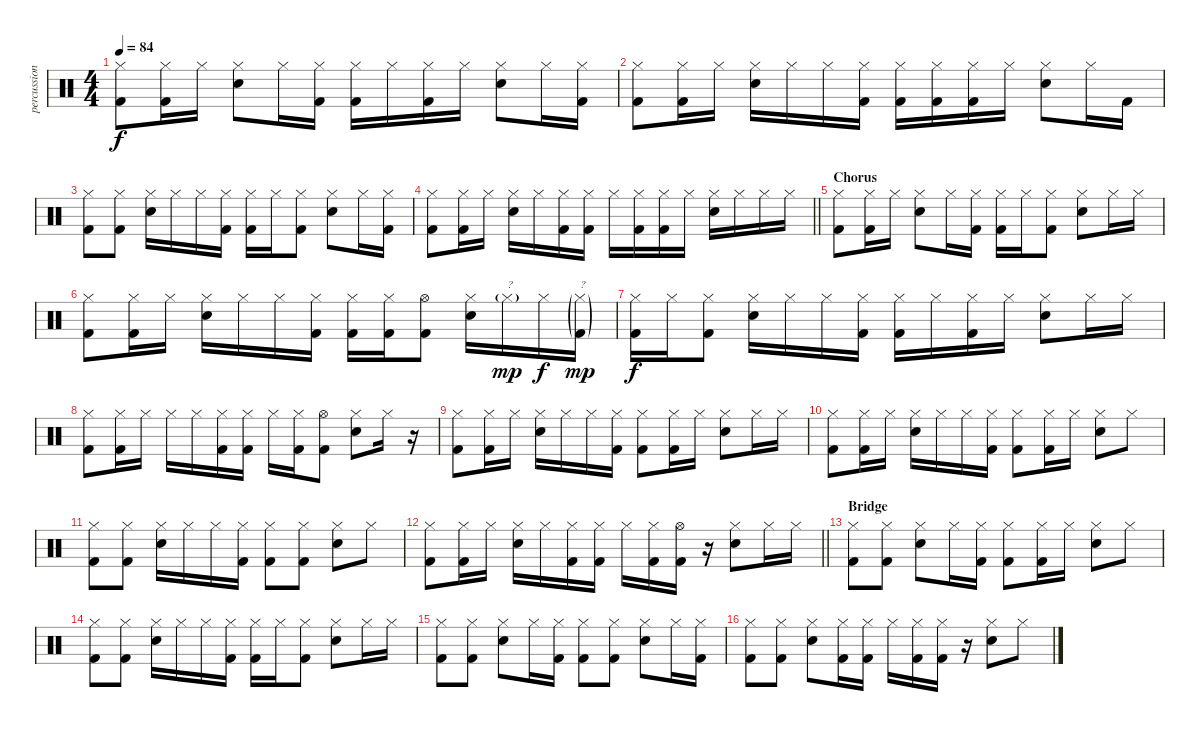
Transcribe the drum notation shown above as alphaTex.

\track ("percussion" "percussion") {instrument percussion}
\staff {score}
\articulation defaults
\ts (4 4)
\tempo 84
\clef neutral
\ks c
("Hi-Hat (closed)" "Kick (hit) 2").8{dy f} ("Hi-Hat (closed)" "Kick (hit) 2").16 "Hi-Hat (closed)".16 ("Snare (hit) 2" "Hi-Hat (closed)").8 "Hi-Hat (closed)".16 ("Hi-Hat (closed)" "Kick (hit) 2").16 ("Hi-Hat (closed)" "Kick (hit) 2").16 "Hi-Hat (closed)".16 ("Hi-Hat (closed)" "Kick (hit) 2").16 "Hi-Hat (closed)".16 ("Snare (hit) 2" "Hi-Hat (closed)").8 "Hi-Hat (closed)".16 ("Hi-Hat (closed)" "Kick (hit) 2").16 |
("Hi-Hat (closed)" "Kick (hit) 2").8 ("Hi-Hat (closed)" "Kick (hit) 2").16 "Hi-Hat (closed)".16 ("Snare (hit) 2" "Hi-Hat (closed)").16 "Hi-Hat (closed)".16 "Hi-Hat (closed)".16 ("Hi-Hat (closed)" "Kick (hit) 2").16 ("Hi-Hat (closed)" "Kick (hit) 2").16 ("Hi-Hat (closed)" "Kick (hit) 2").16 ("Hi-Hat (closed)" "Kick (hit) 2").16 "Hi-Hat (closed)".16 ("Snare (hit) 2" "Hi-Hat (closed)").8 "Hi-Hat (closed)".16 "Kick (hit) 2".16 |
("Hi-Hat (closed)" "Kick (hit) 2").8 ("Hi-Hat (closed)" "Kick (hit) 2").8 ("Snare (hit) 2" "Hi-Hat (closed)").16 "Hi-Hat (closed)".16 "Hi-Hat (closed)".16 ("Hi-Hat (closed)" "Kick (hit) 2").16 ("Hi-Hat (closed)" "Kick (hit) 2").16 "Hi-Hat (closed)".16 ("Hi-Hat (closed)" "Kick (hit) 2").8 ("Snare (hit) 2" "Hi-Hat (closed)").8 "Hi-Hat (closed)".16 ("Hi-Hat (closed)" "Kick (hit) 2").16 |
\barLineRight lightlight
("Hi-Hat (closed)" "Kick (hit) 2").8 ("Hi-Hat (closed)" "Kick (hit) 2").16 "Hi-Hat (closed)".16 ("Snare (hit) 2" "Hi-Hat (closed)").16 "Hi-Hat (closed)".16 ("Hi-Hat (closed)" "Kick (hit) 2").16 ("Hi-Hat (closed)" "Kick (hit) 2").16 "Hi-Hat (closed)".16 ("Hi-Hat (closed)" "Kick (hit) 2").16 ("Hi-Hat (closed)" "Kick (hit) 2").16 "Hi-Hat (closed)".16 ("Snare (hit) 2" "Hi-Hat (closed)").16 "Hi-Hat (closed)".16 "Hi-Hat (closed)".16 "Hi-Hat (closed)".16 |
\section ("" "Chorus")
("Hi-Hat (closed)" "Kick (hit) 2").8 ("Hi-Hat (closed)" "Kick (hit) 2").16 "Hi-Hat (closed)".16 ("Snare (hit) 2" "Hi-Hat (closed)").8 "Hi-Hat (closed)".16 ("Hi-Hat (closed)" "Kick (hit) 2").16 ("Hi-Hat (closed)" "Kick (hit) 2").16 "Hi-Hat (closed)".16 ("Hi-Hat (closed)" "Kick (hit) 2").8 ("Snare (hit) 2" "Hi-Hat (closed)").8 "Hi-Hat (closed)".16 "Hi-Hat (closed)".16 |
("Hi-Hat (closed)" "Kick (hit) 2").8 ("Hi-Hat (closed)" "Kick (hit) 2").16 "Hi-Hat (closed)".16 ("Snare (hit) 2" "Hi-Hat (closed)").16 "Hi-Hat (closed)".16 "Hi-Hat (closed)".16 ("Hi-Hat (closed)" "Kick (hit) 2").16 ("Hi-Hat (closed)" "Kick (hit) 2").16 ("Hi-Hat (closed)" "Kick (hit) 2").16 ("Hi-Hat (open)" "Kick (hit) 2").8 ("Snare (hit) 2" "Hi-Hat (closed)").16 "Hi-Hat (closed)"{g}.16{txt "?" dy mp} "Hi-Hat (closed)".16{dy f} ("Hi-Hat (closed)"{g} "Kick (hit) 2"{g}).16{txt "?" dy mp} |
("Hi-Hat (closed)" "Kick (hit) 2").16{dy f} "Hi-Hat (closed)".16 ("Hi-Hat (closed)" "Kick (hit) 2").8 ("Snare (hit) 2" "Hi-Hat (closed)").16 "Hi-Hat (closed)".16 "Hi-Hat (closed)".16 ("Hi-Hat (closed)" "Kick (hit) 2").16 ("Hi-Hat (closed)" "Kick (hit) 2").16 "Hi-Hat (closed)".16 ("Hi-Hat (closed)" "Kick (hit) 2").16 "Hi-Hat (closed)".16 ("Snare (hit) 2" "Hi-Hat (closed)").8 "Hi-Hat (closed)".16 "Hi-Hat (closed)".16 |
("Hi-Hat (closed)" "Kick (hit) 2").8 ("Hi-Hat (closed)" "Kick (hit) 2").16 "Hi-Hat (closed)".16 "Hi-Hat (closed)".16 "Hi-Hat (closed)".16 ("Hi-Hat (closed)" "Kick (hit) 2").16 ("Hi-Hat (closed)" "Kick (hit) 2").16 "Hi-Hat (closed)".16 ("Hi-Hat (closed)" "Kick (hit) 2").16 ("Hi-Hat (open)" "Kick (hit) 2").8 ("Snare (hit) 2" "Hi-Hat (closed)").8 "Hi-Hat (closed)".16 r.16 |
("Hi-Hat (closed)" "Kick (hit) 2").8 ("Hi-Hat (closed)" "Kick (hit) 2").16 "Hi-Hat (closed)".16 ("Snare (hit) 2" "Hi-Hat (closed)").16 "Hi-Hat (closed)".16 "Hi-Hat (closed)".16 ("Hi-Hat (closed)" "Kick (hit) 2").16 ("Hi-Hat (closed)" "Kick (hit) 2").8 ("Hi-Hat (closed)" "Kick (hit) 2").16 "Hi-Hat (closed)".16 ("Snare (hit) 2" "Hi-Hat (closed)").8 "Hi-Hat (closed)".16 "Hi-Hat (closed)".16 |
("Hi-Hat (closed)" "Kick (hit) 2").8 ("Hi-Hat (closed)" "Kick (hit) 2").16 "Hi-Hat (closed)".16 ("Snare (hit) 2" "Hi-Hat (closed)").16 "Hi-Hat (closed)".16 "Hi-Hat (closed)".16 ("Hi-Hat (closed)" "Kick (hit) 2").16 ("Hi-Hat (closed)" "Kick (hit) 2").8 ("Hi-Hat (closed)" "Kick (hit) 2").16 "Hi-Hat (closed)".16 ("Snare (hit) 2" "Hi-Hat (closed)").8 "Hi-Hat (closed)".8 |
("Hi-Hat (closed)" "Kick (hit) 2").8 ("Hi-Hat (closed)" "Kick (hit) 2").8 ("Snare (hit) 2" "Hi-Hat (closed)").16 "Hi-Hat (closed)".16 "Hi-Hat (closed)".16 ("Hi-Hat (closed)" "Kick (hit) 2").16 ("Hi-Hat (closed)" "Kick (hit) 2").8 ("Hi-Hat (closed)" "Kick (hit) 2").8 ("Snare (hit) 2" "Hi-Hat (closed)").8 "Hi-Hat (closed)".8 |
\barLineRight lightlight
("Hi-Hat (closed)" "Kick (hit) 2").8 ("Hi-Hat (closed)" "Kick (hit) 2").16 "Hi-Hat (closed)".16 ("Snare (hit) 2" "Hi-Hat (closed)").16 "Hi-Hat (closed)".16 ("Hi-Hat (closed)" "Kick (hit) 2").16 ("Hi-Hat (closed)" "Kick (hit) 2").16 "Hi-Hat (closed)".16 ("Hi-Hat (closed)" "Kick (hit) 2").16 ("Hi-Hat (open)" "Kick (hit) 2").16 r.16 ("Snare (hit) 2" "Hi-Hat (closed)").8 "Hi-Hat (closed)".16 "Hi-Hat (closed)".16 |
\section ("" "Bridge")
("Hi-Hat (closed)" "Kick (hit) 2").8 ("Hi-Hat (closed)" "Kick (hit) 2").8 ("Snare (hit) 2" "Hi-Hat (closed)").8 "Hi-Hat (closed)".16 ("Hi-Hat (closed)" "Kick (hit) 2").16 ("Hi-Hat (closed)" "Kick (hit) 2").8 ("Hi-Hat (closed)" "Kick (hit) 2").16 "Hi-Hat (closed)".16 ("Snare (hit) 2" "Hi-Hat (closed)").8 "Hi-Hat (closed)".8 |
("Hi-Hat (closed)" "Kick (hit) 2").8 ("Hi-Hat (closed)" "Kick (hit) 2").8 ("Snare (hit) 2" "Hi-Hat (closed)").16 "Hi-Hat (closed)".16 "Hi-Hat (closed)".16 ("Hi-Hat (closed)" "Kick (hit) 2").16 ("Hi-Hat (closed)" "Kick (hit) 2").16 "Hi-Hat (closed)".16 ("Hi-Hat (closed)" "Kick (hit) 2").8 ("Snare (hit) 2" "Hi-Hat (closed)").8 "Hi-Hat (closed)".16 "Hi-Hat (closed)".16 |
("Hi-Hat (closed)" "Kick (hit) 2").8 ("Hi-Hat (closed)" "Kick (hit) 2").8 ("Snare (hit) 2" "Hi-Hat (closed)").8 "Hi-Hat (closed)".16 ("Hi-Hat (closed)" "Kick (hit) 2").16 ("Hi-Hat (closed)" "Kick (hit) 2").8 ("Hi-Hat (closed)" "Kick (hit) 2").8 ("Snare (hit) 2" "Hi-Hat (closed)").8 "Hi-Hat (closed)".16 ("Hi-Hat (closed)" "Kick (hit) 2").16 |
("Hi-Hat (closed)" "Kick (hit) 2").8 ("Hi-Hat (closed)" "Kick (hit) 2").8 ("Snare (hit) 2" "Hi-Hat (closed)").8 ("Hi-Hat (closed)" "Kick (hit) 2").16 ("Hi-Hat (closed)" "Kick (hit) 2").16 "Hi-Hat (closed)".16 ("Hi-Hat (closed)" "Kick (hit) 2").16 ("Hi-Hat (closed)" "Kick (hit) 2").16 r.16 ("Snare (hit) 2" "Hi-Hat (closed)").8 "Hi-Hat (closed)".8
